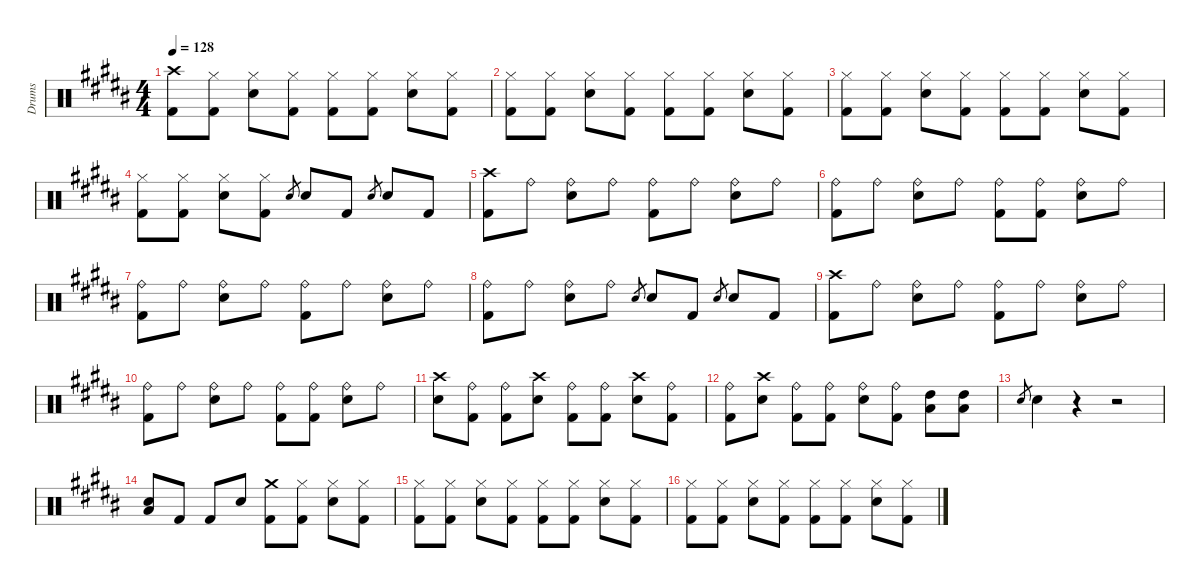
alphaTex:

\hideDynamics
\bracketExtendMode nobrackets
\otherSystemsTrackNameOrientation horizontal
\track ("Drumkit" "Drums") {instrument percussion}
\staff {score}
\articulation defaults
\ts (4 4)
\tempo 128
\clef neutral
\scale
0.333333
\ks b
("Crash high (hit)"{acc bb} "Kick (hit) 2"{acc bb}).8{dy mf beam Down} ("Kick (hit) 2"{acc bb} "Hi-Hat (closed)"{acc bb}).8{beam Down} ("Snare (hit) 2"{acc bb} "Hi-Hat (closed)"{acc bb}).8{beam Down} ("Kick (hit) 2"{acc bb} "Hi-Hat (closed)"{acc bb}).8{beam Down} ("Kick (hit) 2"{acc bb} "Hi-Hat (closed)"{acc bb}).8{beam Down} ("Kick (hit) 2"{acc bb} "Hi-Hat (closed)"{acc bb}).8{beam Down} ("Snare (hit) 2"{acc bb} "Hi-Hat (closed)"{acc bb}).8{beam Down} ("Kick (hit) 2"{acc bb} "Hi-Hat (closed)"{acc bb}).8{beam Down} |
\scale
0.333333 ("Kick (hit) 2"{acc bb} "Hi-Hat (closed)"{acc bb}).8{beam Down} ("Kick (hit) 2"{acc bb} "Hi-Hat (closed)"{acc bb}).8{beam Down} ("Snare (hit) 2"{acc bb} "Hi-Hat (closed)"{acc bb}).8{beam Down} ("Kick (hit) 2"{acc bb} "Hi-Hat (closed)"{acc bb}).8{beam Down} ("Kick (hit) 2"{acc bb} "Hi-Hat (closed)"{acc bb}).8{beam Down} ("Kick (hit) 2"{acc bb} "Hi-Hat (closed)"{acc bb}).8{beam Down} ("Snare (hit) 2"{acc bb} "Hi-Hat (closed)"{acc bb}).8{beam Down} ("Kick (hit) 2"{acc bb} "Hi-Hat (closed)"{acc bb}).8{beam Down} |
\scale
0.333333 ("Kick (hit) 2"{acc bb} "Hi-Hat (closed)"{acc bb}).8{beam Down} ("Kick (hit) 2"{acc bb} "Hi-Hat (closed)"{acc bb}).8{beam Down} ("Snare (hit) 2"{acc bb} "Hi-Hat (closed)"{acc bb}).8{beam Down} ("Kick (hit) 2"{acc bb} "Hi-Hat (closed)"{acc bb}).8{beam Down} ("Kick (hit) 2"{acc bb} "Hi-Hat (closed)"{acc bb}).8{beam Down} ("Kick (hit) 2"{acc bb} "Hi-Hat (closed)"{acc bb}).8{beam Down} ("Snare (hit) 2"{acc bb} "Hi-Hat (closed)"{acc bb}).8{beam Down} ("Kick (hit) 2"{acc bb} "Hi-Hat (closed)"{acc bb}).8{beam Down} |
\scale
0.333333 ("Kick (hit) 2"{acc bb} "Hi-Hat (closed)"{acc bb}).8{beam Down} ("Kick (hit) 2"{acc bb} "Hi-Hat (closed)"{acc bb}).8{beam Down} ("Snare (hit) 2"{acc bb} "Hi-Hat (closed)"{acc bb}).8{beam Down} ("Kick (hit) 2"{acc bb} "Hi-Hat (closed)"{acc bb}).8{beam Down} "Snare (hit) 2"{acc bb}.8{gr beam Up} "Snare (hit) 2"{acc bb}.8{beam Up} "Kick (hit) 2"{acc bb}.8{beam Up} "Snare (hit) 2"{acc bb}.8{gr beam Up} "Snare (hit) 2"{acc bb}.8{beam Up} "Kick (hit) 2"{acc bb}.8{beam Up} |
\scale
0.333333 ("Kick (hit) 2"{acc bb} "Crash high (hit)"{acc bb}).8{beam Down} "Ride (bell)"{acc bb}.8{beam Down} ("Ride (bell)"{acc bb} "Snare (hit) 2"{acc bb}).8{beam Down} "Ride (bell)"{acc bb}.8{beam Down} ("Ride (bell)"{acc bb} "Kick (hit) 2"{acc bb}).8{beam Down} "Ride (bell)"{acc bb}.8{beam Down} ("Ride (bell)"{acc bb} "Snare (hit) 2"{acc bb}).8{beam Down} "Ride (bell)"{acc bb}.8{beam Down} |
\scale
0.333333 ("Ride (bell)"{acc bb} "Kick (hit) 2"{acc bb}).8{beam Down} "Ride (bell)"{acc bb}.8{beam Down} ("Ride (bell)"{acc bb} "Snare (hit) 2"{acc bb}).8{beam Down} "Ride (bell)"{acc bb}.8{beam Down} ("Ride (bell)"{acc bb} "Kick (hit) 2"{acc bb}).8{beam Down} ("Ride (bell)"{acc bb} "Kick (hit) 2"{acc bb}).8{beam Down} ("Ride (bell)"{acc bb} "Snare (hit) 2"{acc bb}).8{beam Down} "Ride (bell)"{acc bb}.8{beam Down} |
\scale
0.333333 ("Ride (bell)"{acc bb} "Kick (hit) 2"{acc bb}).8{beam Down} "Ride (bell)"{acc bb}.8{beam Down} ("Ride (bell)"{acc bb} "Snare (hit) 2"{acc bb}).8{beam Down} "Ride (bell)"{acc bb}.8{beam Down} ("Ride (bell)"{acc bb} "Kick (hit) 2"{acc bb}).8{beam Down} "Ride (bell)"{acc bb}.8{beam Down} ("Ride (bell)"{acc bb} "Snare (hit) 2"{acc bb}).8{beam Down} "Ride (bell)"{acc bb}.8{beam Down} |
\scale
0.333333 ("Ride (bell)"{acc bb} "Kick (hit) 2"{acc bb}).8{beam Down} "Ride (bell)"{acc bb}.8{beam Down} ("Ride (bell)"{acc bb} "Snare (hit) 2"{acc bb}).8{beam Down} "Ride (bell)"{acc bb}.8{beam Down} "Snare (hit) 2"{acc bb}.8{gr beam Up} "Snare (hit) 2"{acc bb}.8{beam Up} "Kick (hit) 2"{acc bb}.8{beam Up} "Snare (hit) 2"{acc bb}.8{gr beam Up} "Snare (hit) 2"{acc bb}.8{beam Up} "Kick (hit) 2"{acc bb}.8{beam Up} |
\scale
0.333333 ("Kick (hit) 2"{acc bb} "Crash high (hit)"{acc bb}).8{beam Down} "Ride (bell)"{acc bb}.8{beam Down} ("Ride (bell)"{acc bb} "Snare (hit) 2"{acc bb}).8{beam Down} "Ride (bell)"{acc bb}.8{beam Down} ("Ride (bell)"{acc bb} "Kick (hit) 2"{acc bb}).8{beam Down} "Ride (bell)"{acc bb}.8{beam Down} ("Ride (bell)"{acc bb} "Snare (hit) 2"{acc bb}).8{beam Down} "Ride (bell)"{acc bb}.8{beam Down} |
\scale
0.333333 ("Ride (bell)"{acc bb} "Kick (hit) 2"{acc bb}).8{beam Down} "Ride (bell)"{acc bb}.8{beam Down} ("Ride (bell)"{acc bb} "Snare (hit) 2"{acc bb}).8{beam Down} "Ride (bell)"{acc bb}.8{beam Down} ("Ride (bell)"{acc bb} "Kick (hit) 2"{acc bb}).8{beam Down} ("Ride (bell)"{acc bb} "Kick (hit) 2"{acc bb}).8{beam Down} ("Ride (bell)"{acc bb} "Snare (hit) 2"{acc bb}).8{beam Down} "Ride (bell)"{acc bb}.8{beam Down} |
\scale
0.333333 ("Snare (hit) 2"{acc bb} "Crash high (hit)"{acc bb}).8{beam Down} ("Ride (bell)"{acc bb} "Kick (hit) 2"{acc bb}).8{beam Down} ("Ride (bell)"{acc bb} "Kick (hit) 2"{acc bb}).8{beam Down} ("Snare (hit) 2"{acc bb} "Crash high (hit)"{acc bb}).8{beam Down} ("Ride (bell)"{acc bb} "Kick (hit) 2"{acc bb}).8{beam Down} ("Ride (bell)"{acc bb} "Kick (hit) 2"{acc bb}).8{beam Down} ("Snare (hit) 2"{acc bb} "Crash high (hit)"{acc bb}).8{beam Down} ("Ride (bell)"{acc bb} "Kick (hit) 2"{acc bb}).8{beam Down} |
\scale
0.333333 ("Kick (hit) 2"{acc bb} "Ride (bell)"{acc bb}).8{beam Down} ("Snare (hit) 2"{acc bb} "Crash high (hit)"{acc bb}).8{beam Down} ("Kick (hit) 2"{acc bb} "Ride (bell)"{acc bb}).8{beam Down} ("Kick (hit) 2"{acc bb} "Ride (bell)"{acc bb}).8{beam Down} ("Snare (hit) 2"{acc bb} "Ride (bell)"{acc bb}).8{beam Down} ("Kick (hit) 2"{acc bb} "Ride (bell)"{acc bb}).8{beam Down} ("Low Tom (hit)"{acc bb} "High Tom (hit)"{acc bb}).8{beam Down} ("Low Tom (hit)"{acc bb} "High Tom (hit)"{acc bb}).8{beam Down} |
\scale
0.333333 "Snare (hit) 2"{acc bb}.8{gr beam Up} "Snare (hit) 2"{acc bb}.4{beam Down} r.4{beam Down} r.2{beam Down} |
\scale
0.333333 ("Low Tom (hit)"{acc bb} "Snare (hit) 2"{acc bb}).8{beam Up} "Kick (hit) 2"{acc bb}.8{beam Up} "Kick (hit) 2"{acc bb}.8{beam Up} "Snare (hit) 2"{acc bb}.8{beam Up} ("Kick (hit) 2"{acc bb} "Crash medium (hit)"{acc bb}).8{beam Down} ("Hi-Hat (closed)"{acc bb} "Kick (hit) 2"{acc bb}).8{beam Down} ("Hi-Hat (closed)"{acc bb} "Snare (hit) 2"{acc bb}).8{beam Down} ("Hi-Hat (closed)"{acc bb} "Kick (hit) 2"{acc bb}).8{beam Down} |
\scale
0.333333 ("Kick (hit) 2"{acc bb} "Hi-Hat (closed)"{acc bb}).8{beam Down} ("Kick (hit) 2"{acc bb} "Hi-Hat (closed)"{acc bb}).8{beam Down} ("Snare (hit) 2"{acc bb} "Hi-Hat (closed)"{acc bb}).8{beam Down} ("Kick (hit) 2"{acc bb} "Hi-Hat (closed)"{acc bb}).8{beam Down} ("Kick (hit) 2"{acc bb} "Hi-Hat (closed)"{acc bb}).8{beam Down} ("Kick (hit) 2"{acc bb} "Hi-Hat (closed)"{acc bb}).8{beam Down} ("Snare (hit) 2"{acc bb} "Hi-Hat (closed)"{acc bb}).8{beam Down} ("Kick (hit) 2"{acc bb} "Hi-Hat (closed)"{acc bb}).8{beam Down} |
\scale
0.333333 ("Kick (hit) 2"{acc bb} "Hi-Hat (closed)"{acc bb}).8{beam Down} ("Kick (hit) 2"{acc bb} "Hi-Hat (closed)"{acc bb}).8{beam Down} ("Snare (hit) 2"{acc bb} "Hi-Hat (closed)"{acc bb}).8{beam Down} ("Kick (hit) 2"{acc bb} "Hi-Hat (closed)"{acc bb}).8{beam Down} ("Kick (hit) 2"{acc bb} "Hi-Hat (closed)"{acc bb}).8{beam Down} ("Kick (hit) 2"{acc bb} "Hi-Hat (closed)"{acc bb}).8{beam Down} ("Snare (hit) 2"{acc bb} "Hi-Hat (closed)"{acc bb}).8{beam Down} ("Kick (hit) 2"{acc bb} "Hi-Hat (closed)"{acc bb}).8{beam Down}
